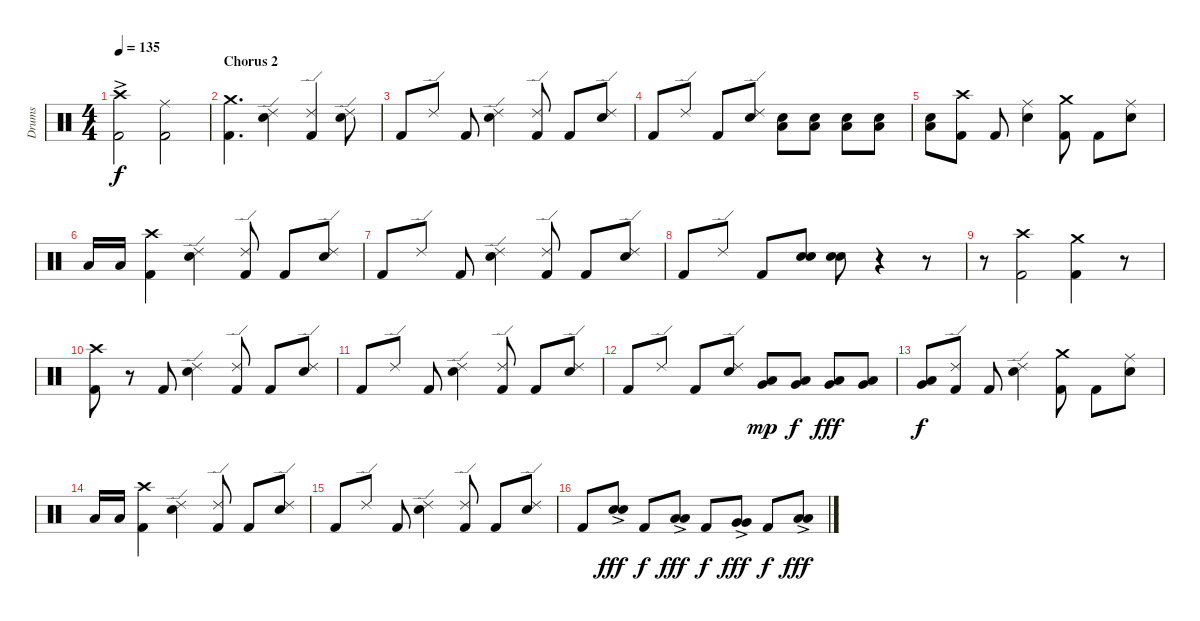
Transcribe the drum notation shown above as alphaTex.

\track ("Drums" "Drums") {instrument percussion}
\staff {score}
\articulation defaults
\ts (4 4)
\tempo 135
\clef neutral
\ks c
("Crash high (hit)"{ac} "Kick (hit) 2").2{dy f} ("Ride (middle)" "Kick (hit) 2").2 |
\section ("" "Chorus 2")
("Crash medium (hit)" "Kick (hit) 2").4{d} ("Ride (edge) 2" "Snare (hit) 2").4 ("Ride (edge) 2" "Kick (hit) 2").4 ("Ride (edge) 2" "Snare (hit) 2").8 |
"Kick (hit) 2".8 "Ride (edge) 2".8 "Kick (hit) 2".8 ("Ride (edge) 2" "Snare (hit) 2").4 ("Ride (edge) 2" "Kick (hit) 2").8 "Kick (hit) 2".8 ("Ride (edge) 2" "Snare (hit) 2").8 |
"Kick (hit) 2".8 "Ride (edge) 2".8 "Kick (hit) 2".8 ("Ride (edge) 2" "Snare (hit) 2").8 ("Low Floor Tom (hit)" "Snare (hit) 2").8 ("Low Floor Tom (hit)" "Snare (hit) 2").8 ("Low Floor Tom (hit)" "Snare (hit) 2").8 ("Low Floor Tom (hit)" "Snare (hit) 2").8 |
("Low Floor Tom (hit)" "Snare (hit) 2").8 ("Crash high (hit)" "Kick (hit) 2").8 "Kick (hit) 2".8 ("Ride (middle)" "Snare (hit) 2").4 ("Crash medium (hit)" "Kick (hit) 2").8 "Kick (hit) 2".8 ("Ride (middle)" "Snare (hit) 2").8 |
"Low Floor Tom (hit)".16 "Low Floor Tom (hit)".16 ("Crash high (hit)" "Kick (hit) 2").4 ("Ride (edge) 2" "Snare (hit) 2").4 ("Ride (edge) 2" "Kick (hit) 2").8 "Kick (hit) 2".8 ("Ride (edge) 2" "Snare (hit) 2").8 |
"Kick (hit) 2".8 "Ride (edge) 2".8 "Kick (hit) 2".8 ("Ride (edge) 2" "Snare (hit) 2").4 ("Ride (edge) 2" "Kick (hit) 2").8 "Kick (hit) 2".8 ("Ride (edge) 2" "Snare (hit) 2").8 |
"Kick (hit) 2".8 "Ride (edge) 2".8 "Kick (hit) 2".8 ("Snare (hit) 2" "Snare (hit) 2").8 ("Snare (hit) 2" "Snare (hit) 2").8 r.4 r.8 |
r.8 ("Crash high (hit)" "Kick (hit) 2").2 ("Crash medium (hit)" "Kick (hit) 2").4 r.8 |
("Crash high (hit)" "Kick (hit) 2").8 r.8 "Kick (hit) 2".8 ("Ride (edge) 2" "Snare (hit) 2").4 ("Ride (edge) 2" "Kick (hit) 2").8 "Kick (hit) 2".8 ("Ride (edge) 2" "Snare (hit) 2").8 |
"Kick (hit) 2".8 "Ride (edge) 2".8 "Kick (hit) 2".8 ("Ride (edge) 2" "Snare (hit) 2").4 ("Ride (edge) 2" "Kick (hit) 2").8 "Kick (hit) 2".8 ("Ride (edge) 2" "Snare (hit) 2").8 |
"Kick (hit) 2".8 "Ride (edge) 2".8 "Kick (hit) 2".8 ("Ride (edge) 2" "Snare (hit) 2").8 ("Low Floor Tom (hit)" "Very Low Tom (hit)").8{dy mp} ("Low Floor Tom (hit)" "Very Low Tom (hit)").8{dy f} ("Low Floor Tom (hit)" "Very Low Tom (hit)").8{dy fff} ("Low Floor Tom (hit)" "Very Low Tom (hit)").8 |
("Low Floor Tom (hit)" "Very Low Tom (hit)").8{dy f} ("Ride (edge) 2" "Kick (hit) 2").8 "Kick (hit) 2".8 ("Ride (edge) 2" "Snare (hit) 2").4 ("Crash medium (hit)" "Kick (hit) 2").8 "Kick (hit) 2".8 ("Ride (middle)" "Snare (hit) 2").8 |
"Low Floor Tom (hit)".16 "Low Floor Tom (hit)".16 ("Crash high (hit)" "Kick (hit) 2").4 ("Ride (edge) 2" "Snare (hit) 2").4 ("Ride (edge) 2" "Kick (hit) 2").8 "Kick (hit) 2".8 ("Ride (edge) 2" "Snare (hit) 2").8 |
"Kick (hit) 2".8 "Ride (edge) 2".8 "Kick (hit) 2".8 ("Ride (edge) 2" "Snare (hit) 2").4 ("Ride (edge) 2" "Kick (hit) 2").8 "Kick (hit) 2".8 ("Ride (edge) 2" "Snare (hit) 2").8 |
"Kick (hit) 2".8 ("Snare (hit) 2"{ac} "Snare (hit) 2"{ac}).8{dy fff} "Kick (hit) 2".8{dy f} ("Low Tom (hit)"{ac} "Low Tom (hit)"{ac}).8{dy fff} "Kick (hit) 2".8{dy f} ("Very Low Tom (hit)"{ac} "Very Low Tom (hit)"{ac}).8{dy fff} "Kick (hit) 2".8{dy f} ("Low Floor Tom (hit)"{ac} "Low Floor Tom (hit)"{ac}).8{dy fff}
